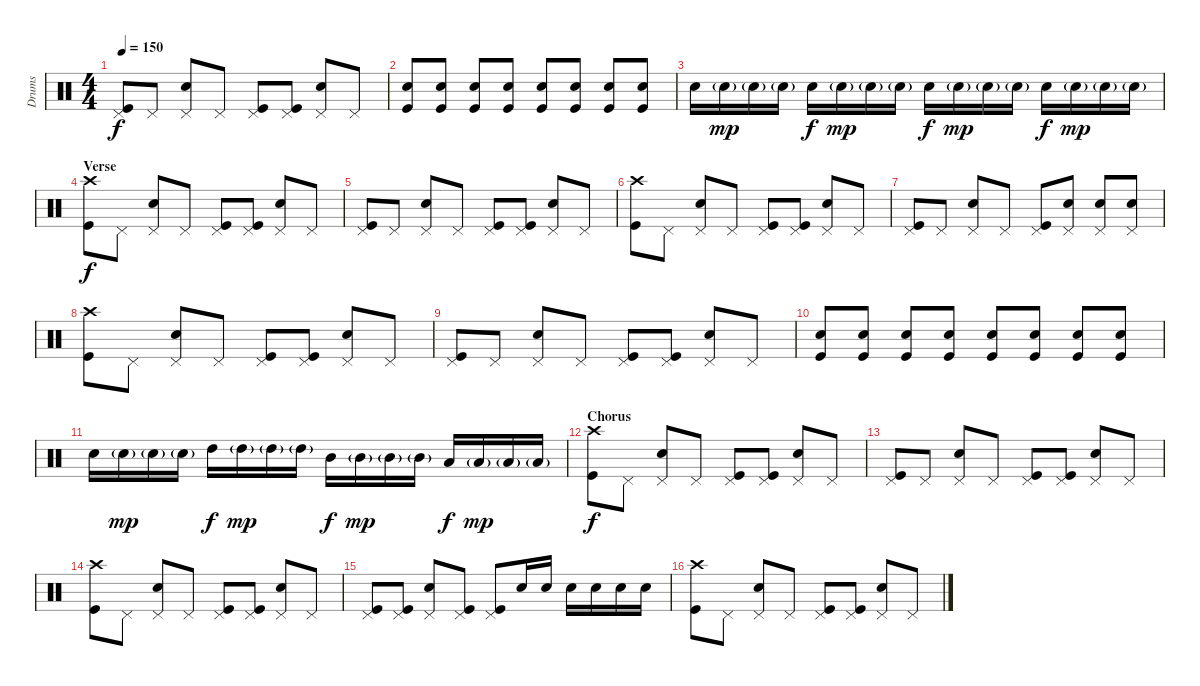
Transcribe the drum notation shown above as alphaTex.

\track ("Drums" "Drums") {instrument percussion}
\staff {score}
\articulation defaults
\ts (4 4)
\tempo 150
\clef neutral
\ks c
("Pedal Hi-Hat (hit)" "Kick (hit)").8{dy f} "Pedal Hi-Hat (hit)".8 ("Pedal Hi-Hat (hit)" "Snare (hit) 2").8 "Pedal Hi-Hat (hit)".8 ("Pedal Hi-Hat (hit)" "Kick (hit)").8 ("Pedal Hi-Hat (hit)" "Kick (hit)").8 ("Pedal Hi-Hat (hit)" "Snare (hit) 2").8 "Pedal Hi-Hat (hit)".8 |
("Snare (hit) 2" "Kick (hit)").8 ("Snare (hit) 2" "Kick (hit)").8 ("Snare (hit) 2" "Kick (hit)").8 ("Snare (hit) 2" "Kick (hit)").8 ("Snare (hit) 2" "Kick (hit)").8 ("Snare (hit) 2" "Kick (hit)").8 ("Snare (hit) 2" "Kick (hit)").8 ("Snare (hit) 2" "Kick (hit)").8 |
"Snare (hit) 2".16 "Snare (hit) 2"{g}.16{dy mp} "Snare (hit) 2"{g}.16 "Snare (hit) 2"{g}.16 "Snare (hit) 2".16{dy f} "Snare (hit) 2"{g}.16{dy mp} "Snare (hit) 2"{g}.16 "Snare (hit) 2"{g}.16 "Snare (hit) 2".16{dy f} "Snare (hit) 2"{g}.16{dy mp} "Snare (hit) 2"{g}.16 "Snare (hit) 2"{g}.16 "Snare (hit) 2".16{dy f} "Snare (hit) 2"{g}.16{dy mp} "Snare (hit) 2"{g}.16 "Snare (hit) 2"{g}.16 |
\section ("" "Verse")
("Crash high (hit)" "Kick (hit)").8{dy f} "Pedal Hi-Hat (hit)".8 ("Pedal Hi-Hat (hit)" "Snare (hit) 2").8 "Pedal Hi-Hat (hit)".8 ("Pedal Hi-Hat (hit)" "Kick (hit)").8 ("Pedal Hi-Hat (hit)" "Kick (hit)").8 ("Pedal Hi-Hat (hit)" "Snare (hit) 2").8 "Pedal Hi-Hat (hit)".8 |
("Pedal Hi-Hat (hit)" "Kick (hit)").8 "Pedal Hi-Hat (hit)".8 ("Pedal Hi-Hat (hit)" "Snare (hit) 2").8 "Pedal Hi-Hat (hit)".8 ("Pedal Hi-Hat (hit)" "Kick (hit)").8 ("Pedal Hi-Hat (hit)" "Kick (hit)").8 ("Pedal Hi-Hat (hit)" "Snare (hit) 2").8 "Pedal Hi-Hat (hit)".8 |
("Crash high (hit)" "Kick (hit)").8 "Pedal Hi-Hat (hit)".8 ("Pedal Hi-Hat (hit)" "Snare (hit) 2").8 "Pedal Hi-Hat (hit)".8 ("Pedal Hi-Hat (hit)" "Kick (hit)").8 ("Pedal Hi-Hat (hit)" "Kick (hit)").8 ("Pedal Hi-Hat (hit)" "Snare (hit) 2").8 "Pedal Hi-Hat (hit)".8 |
("Pedal Hi-Hat (hit)" "Kick (hit)").8 "Pedal Hi-Hat (hit)".8 ("Pedal Hi-Hat (hit)" "Snare (hit) 2").8 "Pedal Hi-Hat (hit)".8 ("Pedal Hi-Hat (hit)" "Kick (hit)").8 ("Pedal Hi-Hat (hit)" "Snare (hit) 2").8 ("Pedal Hi-Hat (hit)" "Snare (hit) 2").8 ("Pedal Hi-Hat (hit)" "Snare (hit) 2").8 |
("Crash high (hit)" "Kick (hit)").8 "Pedal Hi-Hat (hit)".8 ("Pedal Hi-Hat (hit)" "Snare (hit) 2").8 "Pedal Hi-Hat (hit)".8 ("Pedal Hi-Hat (hit)" "Kick (hit)").8 ("Pedal Hi-Hat (hit)" "Kick (hit)").8 ("Pedal Hi-Hat (hit)" "Snare (hit) 2").8 "Pedal Hi-Hat (hit)".8 |
("Pedal Hi-Hat (hit)" "Kick (hit)").8 "Pedal Hi-Hat (hit)".8 ("Pedal Hi-Hat (hit)" "Snare (hit) 2").8 "Pedal Hi-Hat (hit)".8 ("Pedal Hi-Hat (hit)" "Kick (hit)").8 ("Pedal Hi-Hat (hit)" "Kick (hit)").8 ("Pedal Hi-Hat (hit)" "Snare (hit) 2").8 "Pedal Hi-Hat (hit)".8 |
("Snare (hit) 2" "Kick (hit)").8 ("Snare (hit) 2" "Kick (hit)").8 ("Snare (hit) 2" "Kick (hit)").8 ("Snare (hit) 2" "Kick (hit)").8 ("Snare (hit) 2" "Kick (hit)").8 ("Snare (hit) 2" "Kick (hit)").8 ("Snare (hit) 2" "Kick (hit)").8 ("Snare (hit) 2" "Kick (hit)").8 |
"Electric Snare (hit)".16 "Electric Snare (hit)"{g}.16{dy mp} "Electric Snare (hit)"{g}.16 "Electric Snare (hit)"{g}.16 "High Tom (hit)".16{dy f} "High Tom (hit)"{g}.16{dy mp} "High Tom (hit)"{g}.16 "High Tom (hit)"{g}.16 "Mid Tom (hit)".16{dy f} "Mid Tom (hit)"{g}.16{dy mp} "Mid Tom (hit)"{g}.16 "Mid Tom (hit)"{g}.16 "Low Tom (hit)".16{dy f} "Low Tom (hit)"{g}.16{dy mp} "Low Tom (hit)"{g}.16 "Low Tom (hit)"{g}.16 |
\section ("" "Chorus")
("Crash high (hit)" "Kick (hit)").8{dy f} "Pedal Hi-Hat (hit)".8 ("Pedal Hi-Hat (hit)" "Snare (hit) 2").8 "Pedal Hi-Hat (hit)".8 ("Pedal Hi-Hat (hit)" "Kick (hit)").8 ("Pedal Hi-Hat (hit)" "Kick (hit)").8 ("Pedal Hi-Hat (hit)" "Snare (hit) 2").8 "Pedal Hi-Hat (hit)".8 |
("Pedal Hi-Hat (hit)" "Kick (hit)").8 "Pedal Hi-Hat (hit)".8 ("Pedal Hi-Hat (hit)" "Snare (hit) 2").8 "Pedal Hi-Hat (hit)".8 ("Pedal Hi-Hat (hit)" "Kick (hit)").8 ("Pedal Hi-Hat (hit)" "Kick (hit)").8 ("Pedal Hi-Hat (hit)" "Snare (hit) 2").8 "Pedal Hi-Hat (hit)".8 |
("Crash high (hit)" "Kick (hit)").8 "Pedal Hi-Hat (hit)".8 ("Pedal Hi-Hat (hit)" "Snare (hit) 2").8 "Pedal Hi-Hat (hit)".8 ("Pedal Hi-Hat (hit)" "Kick (hit)").8 ("Pedal Hi-Hat (hit)" "Kick (hit)").8 ("Pedal Hi-Hat (hit)" "Snare (hit) 2").8 "Pedal Hi-Hat (hit)".8 |
("Pedal Hi-Hat (hit)" "Kick (hit)").8 ("Pedal Hi-Hat (hit)" "Kick (hit)").8 ("Pedal Hi-Hat (hit)" "Snare (hit) 2").8 ("Pedal Hi-Hat (hit)" "Kick (hit)").8 ("Pedal Hi-Hat (hit)" "Kick (hit)").8 "Snare (hit) 2".16 "Snare (hit) 2".16 "Snare (hit) 2".16 "Snare (hit) 2".16 "Snare (hit) 2".16 "Snare (hit) 2".16 |
("Crash high (hit)" "Kick (hit)").8 "Pedal Hi-Hat (hit)".8 ("Pedal Hi-Hat (hit)" "Snare (hit) 2").8 "Pedal Hi-Hat (hit)".8 ("Pedal Hi-Hat (hit)" "Kick (hit)").8 ("Pedal Hi-Hat (hit)" "Kick (hit)").8 ("Pedal Hi-Hat (hit)" "Snare (hit) 2").8 "Pedal Hi-Hat (hit)".8
